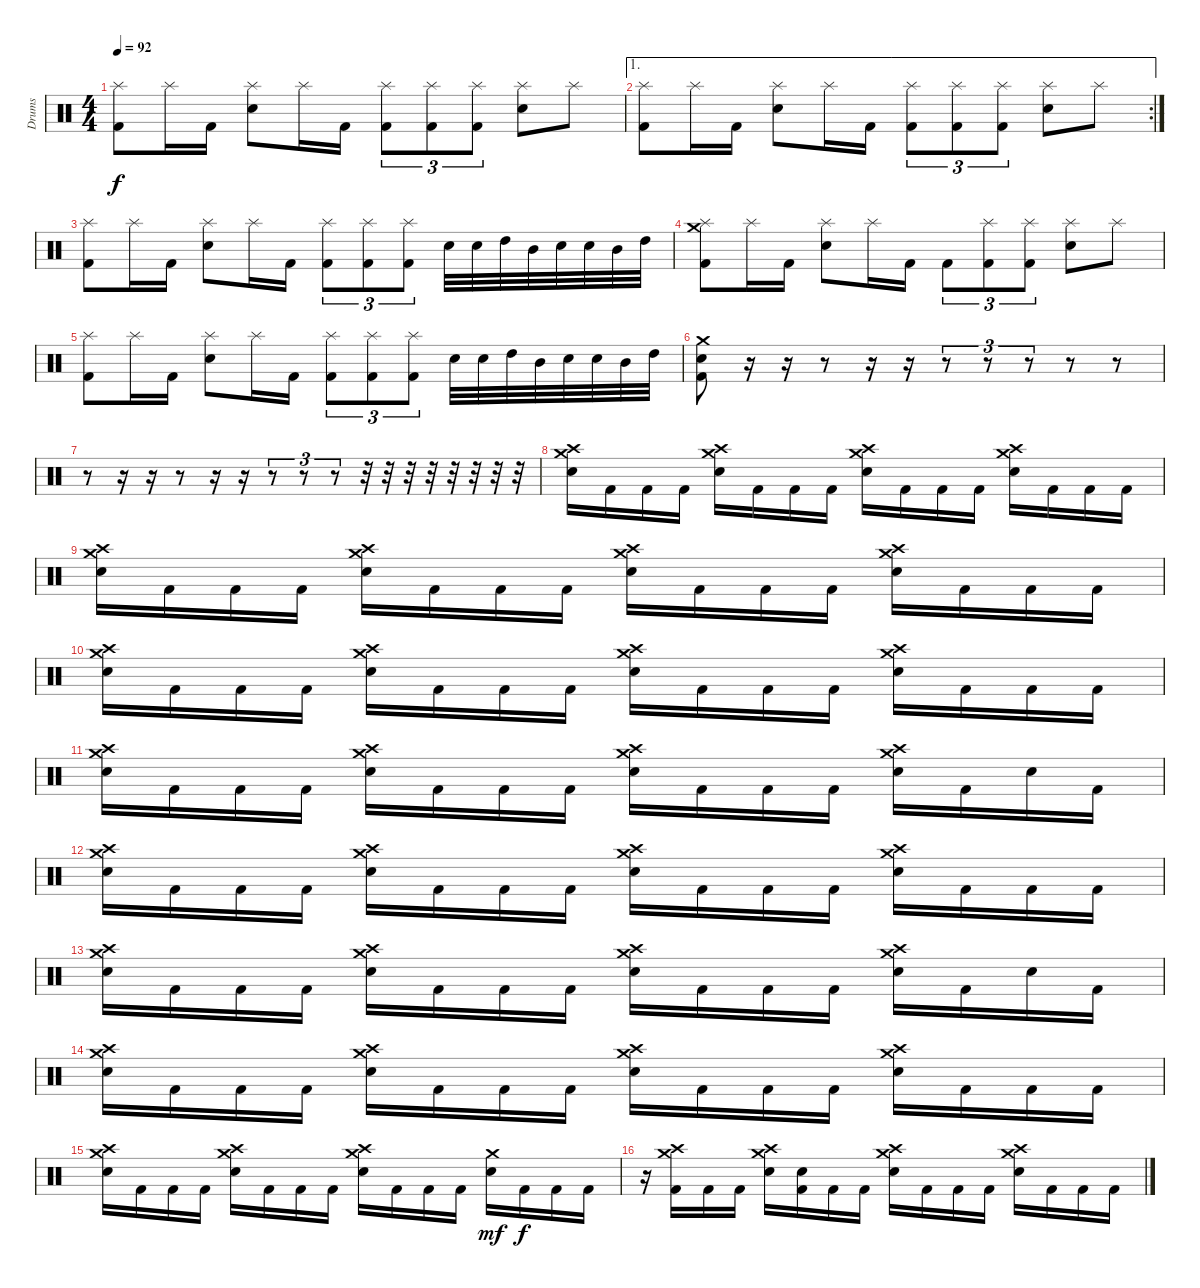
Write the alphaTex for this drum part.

\track ("Drums" "Drums") {instrument percussion}
\staff {score}
\articulation defaults
\ts (4 4)
\tempo 92
\clef neutral
\ks c
("Splash (hit)" "Kick (hit) 2").8{dy f} "Splash (hit)".16 "Kick (hit) 2".16 ("Splash (hit)" "Electric Snare (hit)").8 "Splash (hit)".16 "Kick (hit) 2".16 ("Splash (hit)" "Kick (hit) 2").8{tu (3 2)} ("Splash (hit)" "Kick (hit) 2").8{tu (3 2)} ("Splash (hit)" "Kick (hit) 2").8{tu (3 2)} ("Splash (hit)" "Electric Snare (hit)").8 "Splash (hit)".8 |
\ae 1
\rc 2
("Splash (hit)" "Kick (hit) 2").8 "Splash (hit)".16 "Kick (hit) 2".16 ("Splash (hit)" "Electric Snare (hit)").8 "Splash (hit)".16 "Kick (hit) 2".16 ("Splash (hit)" "Kick (hit) 2").8{tu (3 2)} ("Splash (hit)" "Kick (hit) 2").8{tu (3 2)} ("Splash (hit)" "Kick (hit) 2").8{tu (3 2)} ("Splash (hit)" "Electric Snare (hit)").8 "Splash (hit)".8 |
("Splash (hit)" "Kick (hit) 2").8 "Splash (hit)".16 "Kick (hit) 2".16 ("Splash (hit)" "Electric Snare (hit)").8 "Splash (hit)".16 "Kick (hit) 2".16 ("Splash (hit)" "Kick (hit) 2").8{tu (3 2)} ("Splash (hit)" "Kick (hit) 2").8{tu (3 2)} ("Splash (hit)" "Kick (hit) 2").8{tu (3 2)} "Electric Snare (hit)".32 "Electric Snare (hit)".32 "High Tom (hit)".32 "Mid Tom (hit)".32 "Electric Snare (hit)".32 "Electric Snare (hit)".32 "Mid Tom (hit)".32 "High Tom (hit)".32 |
("Splash (hit)" "Crash medium (hit)" "Kick (hit) 2").8 "Splash (hit)".16 "Kick (hit) 2".16 ("Splash (hit)" "Electric Snare (hit)").8 "Splash (hit)".16 "Kick (hit) 2".16 "Kick (hit) 2".8{tu (3 2)} ("Splash (hit)" "Kick (hit) 2").8{tu (3 2)} ("Splash (hit)" "Kick (hit) 2").8{tu (3 2)} ("Splash (hit)" "Electric Snare (hit)").8 "Splash (hit)".8 |
("Splash (hit)" "Kick (hit) 2").8 "Splash (hit)".16 "Kick (hit) 2".16 ("Splash (hit)" "Electric Snare (hit)").8 "Splash (hit)".16 "Kick (hit) 2".16 ("Splash (hit)" "Kick (hit) 2").8{tu (3 2)} ("Splash (hit)" "Kick (hit) 2").8{tu (3 2)} ("Splash (hit)" "Kick (hit) 2").8{tu (3 2)} "Electric Snare (hit)".32 "Electric Snare (hit)".32 "High Tom (hit)".32 "Mid Tom (hit)".32 "Electric Snare (hit)".32 "Electric Snare (hit)".32 "Mid Tom (hit)".32 "High Tom (hit)".32 |
("Crash medium (hit)" "Electric Snare (hit)" "Kick (hit) 2").8 r.16 r.16 r.8 r.16 r.16 r.8{tu (3 2)} r.8{tu (3 2)} r.8{tu (3 2)} r.8 r.8 |
r.8 r.16 r.16 r.8 r.16 r.16 r.8{tu (3 2)} r.8{tu (3 2)} r.8{tu (3 2)} r.32 r.32 r.32 r.32 r.32 r.32 r.32 r.32 |
("Crash high (hit)" "Crash medium (hit)" "Electric Snare (hit)").16 "Kick (hit) 2".16 "Kick (hit) 2".16 "Kick (hit) 2".16 ("Crash high (hit)" "Crash medium (hit)" "Electric Snare (hit)").16 "Kick (hit) 2".16 "Kick (hit) 2".16 "Kick (hit) 2".16 ("Crash high (hit)" "Crash medium (hit)" "Electric Snare (hit)").16 "Kick (hit) 2".16 "Kick (hit) 2".16 "Kick (hit) 2".16 ("Crash high (hit)" "Crash medium (hit)" "Electric Snare (hit)").16 "Kick (hit) 2".16 "Kick (hit) 2".16 "Kick (hit) 2".16 |
("Crash high (hit)" "Crash medium (hit)" "Electric Snare (hit)").16 "Kick (hit) 2".16 "Kick (hit) 2".16 "Kick (hit) 2".16 ("Crash high (hit)" "Crash medium (hit)" "Electric Snare (hit)").16 "Kick (hit) 2".16 "Kick (hit) 2".16 "Kick (hit) 2".16 ("Crash high (hit)" "Crash medium (hit)" "Electric Snare (hit)").16 "Kick (hit) 2".16 "Kick (hit) 2".16 "Kick (hit) 2".16 ("Crash high (hit)" "Crash medium (hit)" "Electric Snare (hit)").16 "Kick (hit) 2".16 "Kick (hit) 2".16 "Kick (hit) 2".16 |
("Crash high (hit)" "Crash medium (hit)" "Electric Snare (hit)").16 "Kick (hit) 2".16 "Kick (hit) 2".16 "Kick (hit) 2".16 ("Crash high (hit)" "Crash medium (hit)" "Electric Snare (hit)").16 "Kick (hit) 2".16 "Kick (hit) 2".16 "Kick (hit) 2".16 ("Crash high (hit)" "Crash medium (hit)" "Electric Snare (hit)").16 "Kick (hit) 2".16 "Kick (hit) 2".16 "Kick (hit) 2".16 ("Crash high (hit)" "Crash medium (hit)" "Electric Snare (hit)").16 "Kick (hit) 2".16 "Kick (hit) 2".16 "Kick (hit) 2".16 |
("Crash high (hit)" "Crash medium (hit)" "Electric Snare (hit)").16 "Kick (hit) 2".16 "Kick (hit) 2".16 "Kick (hit) 2".16 ("Crash high (hit)" "Crash medium (hit)" "Electric Snare (hit)").16 "Kick (hit) 2".16 "Kick (hit) 2".16 "Kick (hit) 2".16 ("Crash high (hit)" "Crash medium (hit)" "Electric Snare (hit)").16 "Kick (hit) 2".16 "Kick (hit) 2".16 "Kick (hit) 2".16 ("Crash high (hit)" "Crash medium (hit)" "Electric Snare (hit)").16 "Kick (hit) 2".16 "Electric Snare (hit)".16 "Kick (hit) 2".16 |
("Crash high (hit)" "Crash medium (hit)" "Electric Snare (hit)").16 "Kick (hit) 2".16 "Kick (hit) 2".16 "Kick (hit) 2".16 ("Crash high (hit)" "Crash medium (hit)" "Electric Snare (hit)").16 "Kick (hit) 2".16 "Kick (hit) 2".16 "Kick (hit) 2".16 ("Crash high (hit)" "Crash medium (hit)" "Electric Snare (hit)").16 "Kick (hit) 2".16 "Kick (hit) 2".16 "Kick (hit) 2".16 ("Crash high (hit)" "Crash medium (hit)" "Electric Snare (hit)").16 "Kick (hit) 2".16 "Kick (hit) 2".16 "Kick (hit) 2".16 |
("Crash high (hit)" "Crash medium (hit)" "Electric Snare (hit)").16 "Kick (hit) 2".16 "Kick (hit) 2".16 "Kick (hit) 2".16 ("Crash high (hit)" "Crash medium (hit)" "Electric Snare (hit)").16 "Kick (hit) 2".16 "Kick (hit) 2".16 "Kick (hit) 2".16 ("Crash high (hit)" "Crash medium (hit)" "Electric Snare (hit)").16 "Kick (hit) 2".16 "Kick (hit) 2".16 "Kick (hit) 2".16 ("Crash high (hit)" "Crash medium (hit)" "Electric Snare (hit)").16 "Kick (hit) 2".16 "Electric Snare (hit)".16 "Kick (hit) 2".16 |
("Crash high (hit)" "Crash medium (hit)" "Electric Snare (hit)").16 "Kick (hit) 2".16 "Kick (hit) 2".16 "Kick (hit) 2".16 ("Crash high (hit)" "Crash medium (hit)" "Electric Snare (hit)").16 "Kick (hit) 2".16 "Kick (hit) 2".16 "Kick (hit) 2".16 ("Crash high (hit)" "Crash medium (hit)" "Electric Snare (hit)").16 "Kick (hit) 2".16 "Kick (hit) 2".16 "Kick (hit) 2".16 ("Crash high (hit)" "Crash medium (hit)" "Electric Snare (hit)").16 "Kick (hit) 2".16 "Kick (hit) 2".16 "Kick (hit) 2".16 |
("Crash high (hit)" "Crash medium (hit)" "Electric Snare (hit)").16 "Kick (hit) 2".16 "Kick (hit) 2".16 "Kick (hit) 2".16 ("Crash high (hit)" "Crash medium (hit)" "Electric Snare (hit)").16 "Kick (hit) 2".16 "Kick (hit) 2".16 "Kick (hit) 2".16 ("Crash high (hit)" "Crash medium (hit)" "Electric Snare (hit)").16 "Kick (hit) 2".16 "Kick (hit) 2".16 "Kick (hit) 2".16 ("Crash medium (hit)" "Electric Snare (hit)").16{dy mf} "Kick (hit) 2".16{dy f} "Kick (hit) 2".16 "Kick (hit) 2".16 |
r.16 ("Crash medium (hit)" "Crash high (hit)" "Kick (hit) 2").16 "Kick (hit) 2".16 "Kick (hit) 2".16 ("Crash medium (hit)" "Crash high (hit)" "Electric Snare (hit)").16 ("Snare (hit)" "Kick (hit) 2").16 "Kick (hit) 2".16 "Kick (hit) 2".16 ("Crash medium (hit)" "Crash high (hit)" "Electric Snare (hit)").16 "Kick (hit) 2".16 "Kick (hit) 2".16 "Kick (hit) 2".16 ("Crash medium (hit)" "Crash high (hit)" "Electric Snare (hit)").16 "Kick (hit) 2".16 "Kick (hit) 2".16 "Kick (hit) 2".16
